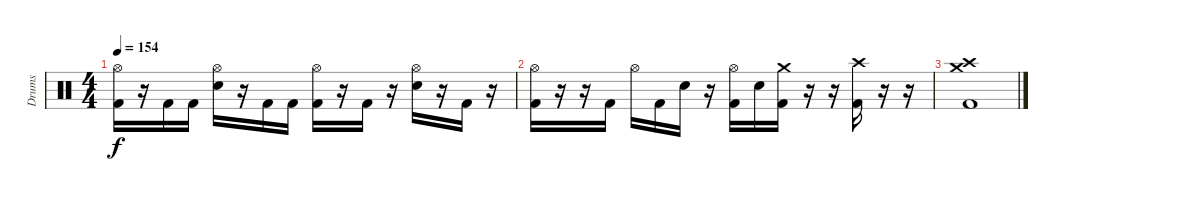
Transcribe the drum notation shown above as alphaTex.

\track ("Drums" "Drums") {instrument percussion}
\staff {score}
\articulation defaults
\ts (4 4)
\tempo 154
\clef neutral
\ks c
("Hi-Hat (open)" "Kick (hit) 2").16{dy f} r.16 "Kick (hit) 2".16 "Kick (hit) 2".16 ("Hi-Hat (open)" "Snare (hit) 2").16 r.16 "Kick (hit) 2".16 "Kick (hit) 2".16 ("Hi-Hat (open)" "Kick (hit) 2").16 r.16 "Kick (hit) 2".16 r.16 ("Hi-Hat (open)" "Snare (hit) 2").16 r.16 "Kick (hit) 2".16 r.16 |
("Hi-Hat (open)" "Kick (hit) 2").16 r.16 r.16 "Kick (hit) 2".16 "Hi-Hat (open)".16 "Kick (hit) 2".16 "Snare (hit) 2".16 r.16 ("Hi-Hat (open)" "Kick (hit) 2").16 "Snare (hit) 2".16 ("Crash medium (hit)" "Kick (hit) 2").16 r.16 r.16 ("Crash high (hit)" "Kick (hit) 2").16 r.16 r.16 |
("Crash high (hit)" "Crash medium (hit)" "Kick (hit) 2").1
